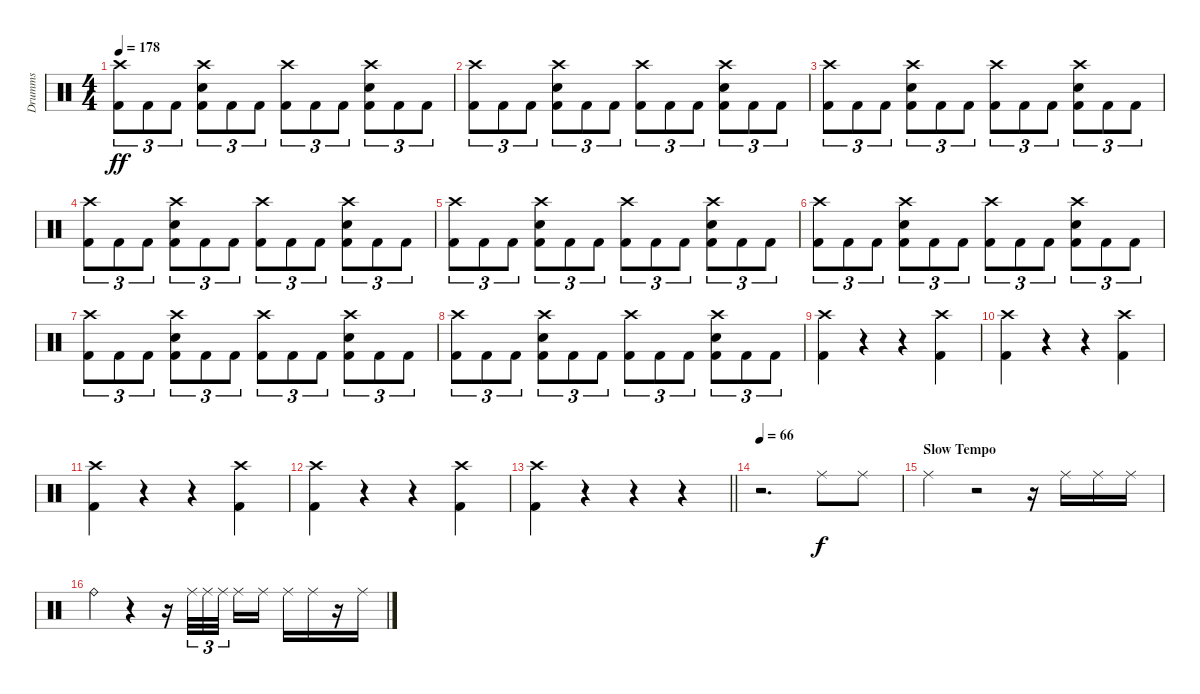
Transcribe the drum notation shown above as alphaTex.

\track ("Drumms" "Drumms") {instrument percussion}
\staff {score}
\articulation defaults
\ts (4 4)
\section ("" "")
\tempo 178
\clef neutral
\ks c
("Crash high (hit)" "Kick (hit) 2").8{tu (3 2) dy ff} "Kick (hit) 2".8{tu (3 2)} "Kick (hit) 2".8{tu (3 2)} ("Crash high (hit)" "Electric Snare (hit)" "Kick (hit) 2").8{tu (3 2)} "Kick (hit) 2".8{tu (3 2)} "Kick (hit) 2".8{tu (3 2)} ("Crash high (hit)" "Kick (hit) 2").8{tu (3 2)} "Kick (hit) 2".8{tu (3 2)} "Kick (hit) 2".8{tu (3 2)} ("Crash high (hit)" "Electric Snare (hit)" "Kick (hit) 2").8{tu (3 2)} "Kick (hit) 2".8{tu (3 2)} "Kick (hit) 2".8{tu (3 2)} |
("Crash high (hit)" "Kick (hit) 2").8{tu (3 2)} "Kick (hit) 2".8{tu (3 2)} "Kick (hit) 2".8{tu (3 2)} ("Crash high (hit)" "Electric Snare (hit)" "Kick (hit) 2").8{tu (3 2)} "Kick (hit) 2".8{tu (3 2)} "Kick (hit) 2".8{tu (3 2)} ("Crash high (hit)" "Kick (hit) 2").8{tu (3 2)} "Kick (hit) 2".8{tu (3 2)} "Kick (hit) 2".8{tu (3 2)} ("Crash high (hit)" "Electric Snare (hit)" "Kick (hit) 2").8{tu (3 2)} "Kick (hit) 2".8{tu (3 2)} "Kick (hit) 2".8{tu (3 2)} |
("Crash high (hit)" "Kick (hit) 2").8{tu (3 2)} "Kick (hit) 2".8{tu (3 2)} "Kick (hit) 2".8{tu (3 2)} ("Crash high (hit)" "Electric Snare (hit)" "Kick (hit) 2").8{tu (3 2)} "Kick (hit) 2".8{tu (3 2)} "Kick (hit) 2".8{tu (3 2)} ("Crash high (hit)" "Kick (hit) 2").8{tu (3 2)} "Kick (hit) 2".8{tu (3 2)} "Kick (hit) 2".8{tu (3 2)} ("Crash high (hit)" "Electric Snare (hit)" "Kick (hit) 2").8{tu (3 2)} "Kick (hit) 2".8{tu (3 2)} "Kick (hit) 2".8{tu (3 2)} |
("Crash high (hit)" "Kick (hit) 2").8{tu (3 2)} "Kick (hit) 2".8{tu (3 2)} "Kick (hit) 2".8{tu (3 2)} ("Crash high (hit)" "Electric Snare (hit)" "Kick (hit) 2").8{tu (3 2)} "Kick (hit) 2".8{tu (3 2)} "Kick (hit) 2".8{tu (3 2)} ("Crash high (hit)" "Kick (hit) 2").8{tu (3 2)} "Kick (hit) 2".8{tu (3 2)} "Kick (hit) 2".8{tu (3 2)} ("Crash high (hit)" "Electric Snare (hit)" "Kick (hit) 2").8{tu (3 2)} "Kick (hit) 2".8{tu (3 2)} "Kick (hit) 2".8{tu (3 2)} |
("Crash high (hit)" "Kick (hit) 2").8{tu (3 2)} "Kick (hit) 2".8{tu (3 2)} "Kick (hit) 2".8{tu (3 2)} ("Crash high (hit)" "Electric Snare (hit)" "Kick (hit) 2").8{tu (3 2)} "Kick (hit) 2".8{tu (3 2)} "Kick (hit) 2".8{tu (3 2)} ("Crash high (hit)" "Kick (hit) 2").8{tu (3 2)} "Kick (hit) 2".8{tu (3 2)} "Kick (hit) 2".8{tu (3 2)} ("Crash high (hit)" "Electric Snare (hit)" "Kick (hit) 2").8{tu (3 2)} "Kick (hit) 2".8{tu (3 2)} "Kick (hit) 2".8{tu (3 2)} |
("Crash high (hit)" "Kick (hit) 2").8{tu (3 2)} "Kick (hit) 2".8{tu (3 2)} "Kick (hit) 2".8{tu (3 2)} ("Crash high (hit)" "Electric Snare (hit)" "Kick (hit) 2").8{tu (3 2)} "Kick (hit) 2".8{tu (3 2)} "Kick (hit) 2".8{tu (3 2)} ("Crash high (hit)" "Kick (hit) 2").8{tu (3 2)} "Kick (hit) 2".8{tu (3 2)} "Kick (hit) 2".8{tu (3 2)} ("Crash high (hit)" "Electric Snare (hit)" "Kick (hit) 2").8{tu (3 2)} "Kick (hit) 2".8{tu (3 2)} "Kick (hit) 2".8{tu (3 2)} |
("Crash high (hit)" "Kick (hit) 2").8{tu (3 2)} "Kick (hit) 2".8{tu (3 2)} "Kick (hit) 2".8{tu (3 2)} ("Crash high (hit)" "Electric Snare (hit)" "Kick (hit) 2").8{tu (3 2)} "Kick (hit) 2".8{tu (3 2)} "Kick (hit) 2".8{tu (3 2)} ("Crash high (hit)" "Kick (hit) 2").8{tu (3 2)} "Kick (hit) 2".8{tu (3 2)} "Kick (hit) 2".8{tu (3 2)} ("Crash high (hit)" "Electric Snare (hit)" "Kick (hit) 2").8{tu (3 2)} "Kick (hit) 2".8{tu (3 2)} "Kick (hit) 2".8{tu (3 2)} |
("Crash high (hit)" "Kick (hit) 2").8{tu (3 2)} "Kick (hit) 2".8{tu (3 2)} "Kick (hit) 2".8{tu (3 2)} ("Crash high (hit)" "Electric Snare (hit)" "Kick (hit) 2").8{tu (3 2)} "Kick (hit) 2".8{tu (3 2)} "Kick (hit) 2".8{tu (3 2)} ("Crash high (hit)" "Kick (hit) 2").8{tu (3 2)} "Kick (hit) 2".8{tu (3 2)} "Kick (hit) 2".8{tu (3 2)} ("Crash high (hit)" "Electric Snare (hit)" "Kick (hit) 2").8{tu (3 2)} "Kick (hit) 2".8{tu (3 2)} "Kick (hit) 2".8{tu (3 2)} |
("Crash high (hit)" "Kick (hit) 2").4 r.4 r.4 ("Crash high (hit)" "Kick (hit) 2").4 |
("Crash high (hit)" "Kick (hit) 2").4 r.4 r.4 ("Crash high (hit)" "Kick (hit) 2").4 |
("Crash high (hit)" "Kick (hit) 2").4 r.4 r.4 ("Crash high (hit)" "Kick (hit) 2").4 |
("Crash high (hit)" "Kick (hit) 2").4 r.4 r.4 ("Crash high (hit)" "Kick (hit) 2").4 |
\barLineRight lightlight
("Crash high (hit)" "Kick (hit) 2").4 r.4 r.4 r.4 |
\tempo 66
r.2{d} "Ride (middle)".8{dy f} "Ride (middle)".8 |
\section ("" "Slow Tempo")
"Ride (middle)".4 r.2 r.16 "Ride (middle)".16 "Ride (middle)".16 "Ride (middle)".16 |
"Ride (bell)".4 r.4 r.16 "Ride (middle)".32{tu (3 2)} "Ride (middle)".32{tu (3 2)} "Ride (middle)".32{tu (3 2)} "Ride (middle)".16 "Ride (middle)".16 "Ride (middle)".16 "Ride (middle)".16 r.16 "Ride (middle)".16
